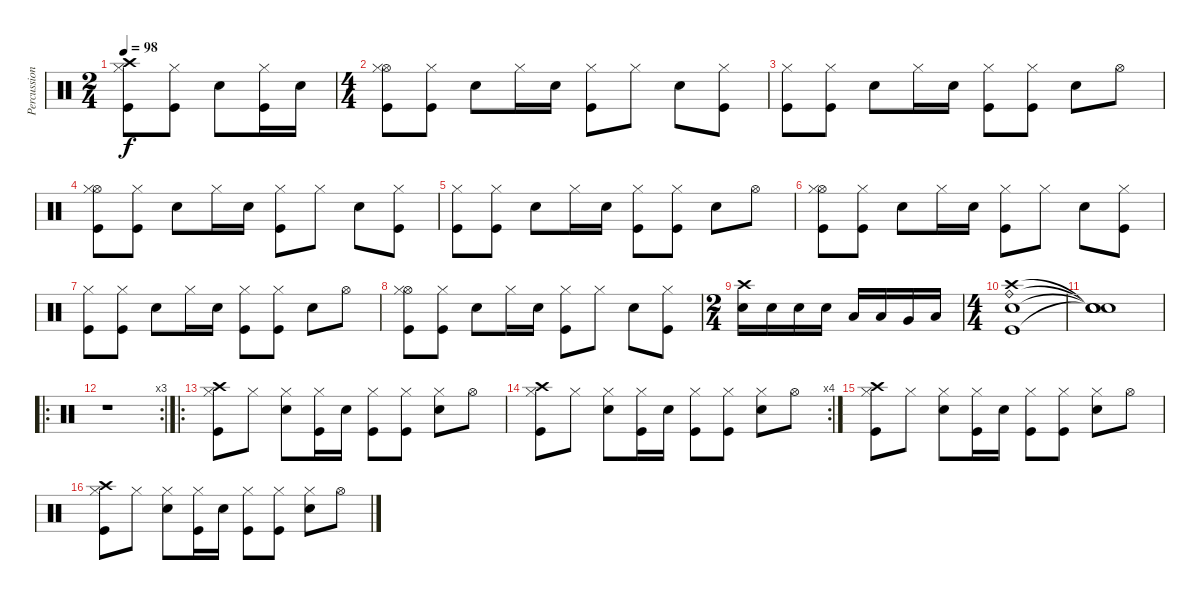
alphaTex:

\track ("Percussions" "Percussion") {instrument percussion}
\staff {score}
\articulation defaults
\ts (2 4)
\tempo 98
\clef neutral
\ks c
("Crash high (hit)" "Hi-Hat (closed)" "Kick (hit)").8{dy f} ("Hi-Hat (closed)" "Kick (hit)").8 "Electric Snare (hit)".8 ("Hi-Hat (closed)" "Kick (hit)").16 "Electric Snare (hit)".16 |
\ts (4 4)
("Hi-Hat (open)" "Hi-Hat (closed)" "Kick (hit)").8 ("Hi-Hat (closed)" "Kick (hit)").8 "Electric Snare (hit)".8 "Hi-Hat (closed)".16 "Electric Snare (hit)".16 ("Hi-Hat (closed)" "Kick (hit)").8 "Hi-Hat (closed)".8 "Electric Snare (hit)".8 ("Hi-Hat (closed)" "Kick (hit)").8 |
("Hi-Hat (closed)" "Kick (hit)").8 ("Hi-Hat (closed)" "Kick (hit)").8 "Electric Snare (hit)".8 "Hi-Hat (closed)".16 "Electric Snare (hit)".16 ("Hi-Hat (closed)" "Kick (hit)").8 ("Hi-Hat (closed)" "Kick (hit)").8 "Electric Snare (hit)".8 "Hi-Hat (open)".8 |
("Hi-Hat (open)" "Hi-Hat (closed)" "Kick (hit)").8 ("Hi-Hat (closed)" "Kick (hit)").8 "Electric Snare (hit)".8 "Hi-Hat (closed)".16 "Electric Snare (hit)".16 ("Hi-Hat (closed)" "Kick (hit)").8 "Hi-Hat (closed)".8 "Electric Snare (hit)".8 ("Hi-Hat (closed)" "Kick (hit)").8 |
("Hi-Hat (closed)" "Kick (hit)").8 ("Hi-Hat (closed)" "Kick (hit)").8 "Electric Snare (hit)".8 "Hi-Hat (closed)".16 "Electric Snare (hit)".16 ("Hi-Hat (closed)" "Kick (hit)").8 ("Hi-Hat (closed)" "Kick (hit)").8 "Electric Snare (hit)".8 "Hi-Hat (open)".8 |
("Hi-Hat (open)" "Hi-Hat (closed)" "Kick (hit)").8 ("Hi-Hat (closed)" "Kick (hit)").8 "Electric Snare (hit)".8 "Hi-Hat (closed)".16 "Electric Snare (hit)".16 ("Hi-Hat (closed)" "Kick (hit)").8 "Hi-Hat (closed)".8 "Electric Snare (hit)".8 ("Hi-Hat (closed)" "Kick (hit)").8 |
("Hi-Hat (closed)" "Kick (hit)").8 ("Hi-Hat (closed)" "Kick (hit)").8 "Electric Snare (hit)".8 "Hi-Hat (closed)".16 "Electric Snare (hit)".16 ("Hi-Hat (closed)" "Kick (hit)").8 ("Hi-Hat (closed)" "Kick (hit)").8 "Electric Snare (hit)".8 "Hi-Hat (open)".8 |
("Hi-Hat (open)" "Hi-Hat (closed)" "Kick (hit)").8 ("Hi-Hat (closed)" "Kick (hit)").8 "Electric Snare (hit)".8 "Hi-Hat (closed)".16 "Electric Snare (hit)".16 ("Hi-Hat (closed)" "Kick (hit)").8 "Hi-Hat (closed)".8 "Electric Snare (hit)".8 ("Hi-Hat (closed)" "Kick (hit)").8 |
\ts (2 4)
("Crash high (hit)" "Snare (hit) 2").16 "Snare (hit) 2".16 "Snare (hit) 2".16 "Snare (hit) 2".16 "Low Tom (hit)".16 "Low Tom (hit)".16 "Very Low Tom (hit)".16 "Low Floor Tom (hit)".16 |
\ts (4 4)
("Crash high (hit)" "Electric Snare (hit)" "Kick (hit)" "Ride (bell)").1 |
("Snare (hit)"{t} "Snare (hit)"{t} "Snare (hit)"{t} "Snare (hit)"{t}).1 |
\ro
\rc 3
r.1 |
\ro
("Crash high (hit)" "Hi-Hat (closed)" "Kick (hit)").8 "Hi-Hat (closed)".8 ("Electric Snare (hit)" "Hi-Hat (closed)").8 ("Hi-Hat (closed)" "Kick (hit)").16 "Electric Snare (hit)".16 ("Hi-Hat (closed)" "Kick (hit)").8 ("Hi-Hat (closed)" "Kick (hit)").8 ("Electric Snare (hit)" "Hi-Hat (closed)").8 "Hi-Hat (open)".8 |
\rc 4
("Crash high (hit)" "Hi-Hat (closed)" "Kick (hit)").8 "Hi-Hat (closed)".8 ("Electric Snare (hit)" "Hi-Hat (closed)").8 ("Hi-Hat (closed)" "Kick (hit)").16 "Electric Snare (hit)".16 ("Hi-Hat (closed)" "Kick (hit)").8 ("Hi-Hat (closed)" "Kick (hit)").8 ("Electric Snare (hit)" "Hi-Hat (closed)").8 "Hi-Hat (open)".8 |
("Crash high (hit)" "Hi-Hat (closed)" "Kick (hit)").8 "Hi-Hat (closed)".8 ("Electric Snare (hit)" "Hi-Hat (closed)").8 ("Hi-Hat (closed)" "Kick (hit)").16 "Electric Snare (hit)".16 ("Hi-Hat (closed)" "Kick (hit)").8 ("Hi-Hat (closed)" "Kick (hit)").8 ("Electric Snare (hit)" "Hi-Hat (closed)").8 "Hi-Hat (open)".8 |
("Crash high (hit)" "Hi-Hat (closed)" "Kick (hit)").8 "Hi-Hat (closed)".8 ("Electric Snare (hit)" "Hi-Hat (closed)").8 ("Hi-Hat (closed)" "Kick (hit)").16 "Electric Snare (hit)".16 ("Hi-Hat (closed)" "Kick (hit)").8 ("Hi-Hat (closed)" "Kick (hit)").8 ("Electric Snare (hit)" "Hi-Hat (closed)").8 "Hi-Hat (open)".8
